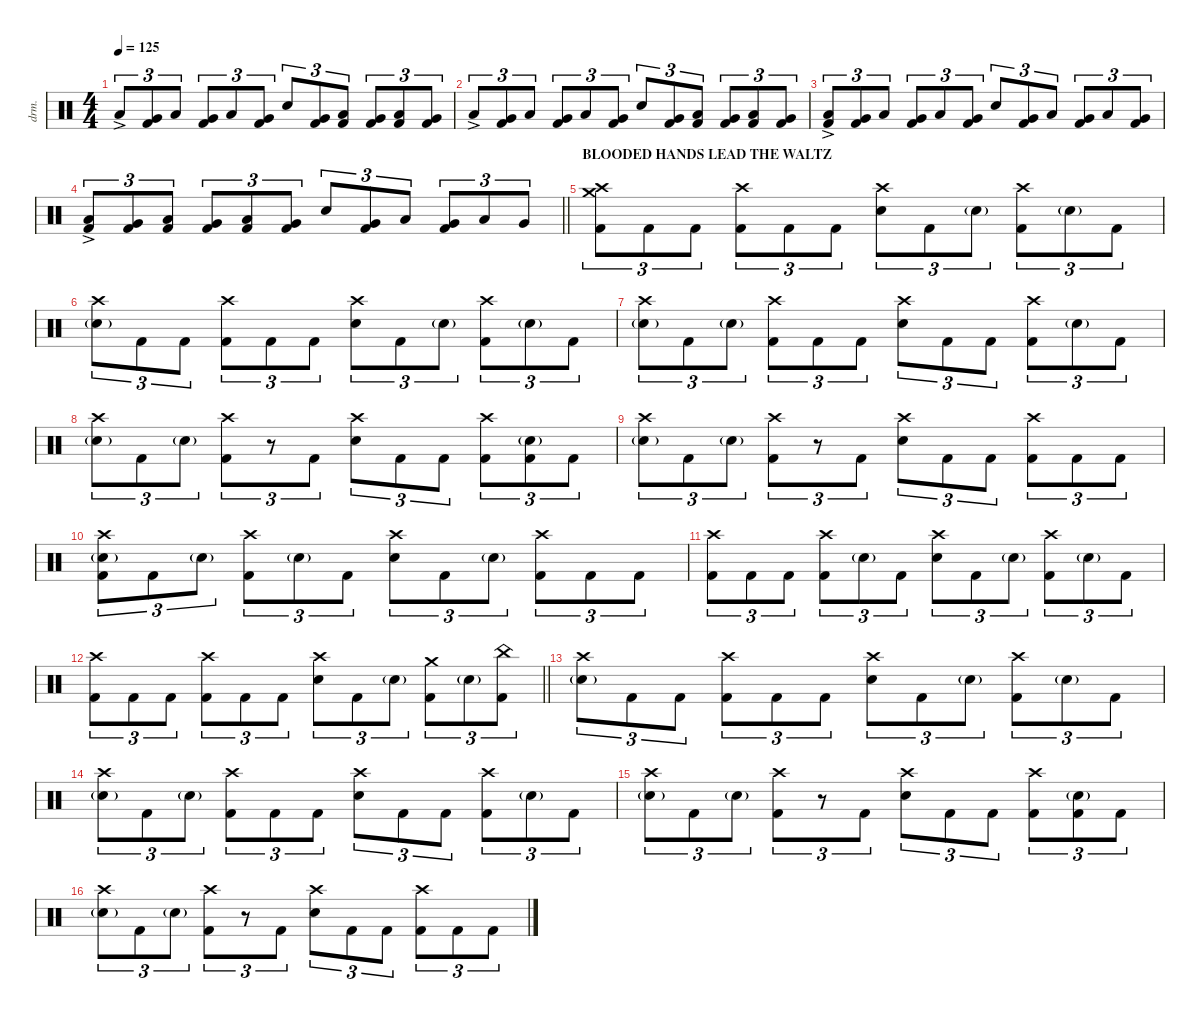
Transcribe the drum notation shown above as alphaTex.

\defaultSystemsLayout 4
\hideDynamics
\bracketExtendMode nobrackets
\track ("DRUMS (Thomas Haake)" "drm.") {instrument percussion}
\staff {score}
\articulation defaults
\ts (4 4)
\tempo 125
\clef neutral
\ks c "Low Floor Tom (hit)"{ac}.8{tu (3 2) dy mf}
("Very Low Tom (hit)" "Kick (hit) 2").8{tu (3 2)} "Low Floor Tom (hit)".8{tu (3 2) dy mp} ("Very Low Tom (hit)" "Kick (hit) 2").8{tu (3 2)} "Low Floor Tom (hit)".8{tu (3 2) dy mf} ("Very Low Tom (hit)" "Kick (hit) 2").8{tu (3 2)} "Snare (hit) 2".8{tu (3 2) dy f} ("Very Low Tom (hit)" "Kick (hit) 2").8{tu (3 2) dy mp} ("Low Floor Tom (hit)" "Kick (hit) 2").8{tu (3 2) dy mf} ("Very Low Tom (hit)" "Kick (hit) 2").8{tu (3 2)} ("Low Floor Tom (hit)" "Kick (hit) 2").8{tu (3 2) dy mp} ("Very Low Tom (hit)" "Kick (hit) 2").8{tu (3 2)} |
"Low Floor Tom (hit)"{ac}.8{tu (3 2) dy mf} ("Very Low Tom (hit)" "Kick (hit) 2").8{tu (3 2)} "Low Floor Tom (hit)".8{tu (3 2) dy mp} ("Very Low Tom (hit)" "Kick (hit) 2").8{tu (3 2)} "Low Floor Tom (hit)".8{tu (3 2) dy mf} ("Very Low Tom (hit)" "Kick (hit) 2").8{tu (3 2)} "Snare (hit) 2".8{tu (3 2) dy f} ("Very Low Tom (hit)" "Kick (hit) 2").8{tu (3 2) dy mp} ("Low Floor Tom (hit)" "Kick (hit) 2").8{tu (3 2) dy mf} ("Very Low Tom (hit)" "Kick (hit) 2").8{tu (3 2)} ("Low Floor Tom (hit)" "Kick (hit) 2").8{tu (3 2) dy mp} ("Very Low Tom (hit)" "Kick (hit) 2").8{tu (3 2)} |
("Low Floor Tom (hit)"{ac} "Kick (hit) 2").8{tu (3 2) dy f} ("Very Low Tom (hit)" "Kick (hit) 2").8{tu (3 2) dy mf} "Low Floor Tom (hit)".8{tu (3 2) dy mp} ("Very Low Tom (hit)" "Kick (hit) 2").8{tu (3 2)} "Low Floor Tom (hit)".8{tu (3 2) dy mf} ("Very Low Tom (hit)" "Kick (hit) 2").8{tu (3 2)} "Snare (hit) 2".8{tu (3 2) dy f} ("Very Low Tom (hit)" "Kick (hit) 2").8{tu (3 2) dy mp} "Low Floor Tom (hit)".8{tu (3 2) dy mf} ("Very Low Tom (hit)" "Kick (hit) 2").8{tu (3 2)} "Low Floor Tom (hit)".8{tu (3 2) dy mp} ("Very Low Tom (hit)" "Kick (hit) 2").8{tu (3 2)} |
\barLineRight lightlight
("Low Floor Tom (hit)"{ac} "Kick (hit) 2").8{tu (3 2) dy f} ("Very Low Tom (hit)" "Kick (hit) 2").8{tu (3 2) dy mf} ("Low Floor Tom (hit)" "Kick (hit) 2").8{tu (3 2) dy mp} ("Very Low Tom (hit)" "Kick (hit) 2").8{tu (3 2)} ("Low Floor Tom (hit)" "Kick (hit) 2").8{tu (3 2) dy mf} ("Very Low Tom (hit)" "Kick (hit) 2").8{tu (3 2)} "Snare (hit) 2".8{tu (3 2) dy f} ("Very Low Tom (hit)" "Kick (hit) 2").8{tu (3 2) dy mp} "Low Floor Tom (hit)".8{tu (3 2) dy mf} ("Very Low Tom (hit)" "Kick (hit) 2").8{tu (3 2)} "Low Floor Tom (hit)".8{tu (3 2) dy mp} "Very Low Tom (hit)".8{tu (3 2)} |
\section ("" "BLOODED HANDS LEAD THE WALTZ")
("Crash high (hit)" "Crash medium (hit)" "Kick (hit) 2").8{tu (3 2) dy f} "Kick (hit) 2".8{tu (3 2)} "Kick (hit) 2".8{tu (3 2)} ("Crash high (hit)" "Kick (hit) 2").8{tu (3 2)} "Kick (hit) 2".8{tu (3 2)} "Kick (hit) 2".8{tu (3 2)} ("Crash high (hit)" "Snare (hit) 2").8{tu (3 2)} "Kick (hit) 2".8{tu (3 2)} "Snare (hit) 2"{g}.8{tu (3 2) dy p} ("Crash high (hit)" "Kick (hit) 2").8{tu (3 2) dy f} "Snare (hit) 2"{g}.8{tu (3 2) dy p} "Kick (hit) 2".8{tu (3 2) dy f} |
("Crash high (hit)" "Snare (hit) 2"{g}).8{tu (3 2)} "Kick (hit) 2".8{tu (3 2)} "Kick (hit) 2".8{tu (3 2)} ("Crash high (hit)" "Kick (hit) 2").8{tu (3 2)} "Kick (hit) 2".8{tu (3 2)} "Kick (hit) 2".8{tu (3 2)} ("Crash high (hit)" "Snare (hit) 2").8{tu (3 2)} "Kick (hit) 2".8{tu (3 2)} "Snare (hit) 2"{g}.8{tu (3 2) dy p} ("Crash high (hit)" "Kick (hit) 2").8{tu (3 2) dy f} "Snare (hit) 2"{g}.8{tu (3 2) dy p} "Kick (hit) 2".8{tu (3 2) dy f} |
("Crash high (hit)" "Snare (hit) 2"{g}).8{tu (3 2)} "Kick (hit) 2".8{tu (3 2)} "Snare (hit) 2"{g}.8{tu (3 2) dy p} ("Crash high (hit)" "Kick (hit) 2").8{tu (3 2) dy f} "Kick (hit) 2".8{tu (3 2)} "Kick (hit) 2".8{tu (3 2)} ("Crash high (hit)" "Snare (hit) 2").8{tu (3 2)} "Kick (hit) 2".8{tu (3 2)} "Kick (hit) 2".8{tu (3 2)} ("Crash high (hit)" "Kick (hit) 2").8{tu (3 2)} "Snare (hit) 2"{g}.8{tu (3 2) dy p} "Kick (hit) 2".8{tu (3 2) dy f} |
("Crash high (hit)" "Snare (hit) 2"{g}).8{tu (3 2)} "Kick (hit) 2".8{tu (3 2)} "Snare (hit) 2"{g}.8{tu (3 2) dy p} ("Crash high (hit)" "Kick (hit) 2").8{tu (3 2) dy f} r.8{tu (3 2)} "Kick (hit) 2".8{tu (3 2)} ("Crash high (hit)" "Snare (hit) 2").8{tu (3 2)} "Kick (hit) 2".8{tu (3 2)} "Kick (hit) 2".8{tu (3 2)} ("Crash high (hit)" "Kick (hit) 2").8{tu (3 2)} ("Snare (hit) 2"{g} "Kick (hit) 2").8{tu (3 2)} "Kick (hit) 2".8{tu (3 2)} |
("Crash high (hit)" "Snare (hit) 2"{g}).8{tu (3 2)} "Kick (hit) 2".8{tu (3 2)} "Snare (hit) 2"{g}.8{tu (3 2) dy p} ("Crash high (hit)" "Kick (hit) 2").8{tu (3 2) dy f} r.8{tu (3 2)} "Kick (hit) 2".8{tu (3 2)} ("Crash high (hit)" "Snare (hit) 2").8{tu (3 2)} "Kick (hit) 2".8{tu (3 2)} "Kick (hit) 2".8{tu (3 2)} ("Crash high (hit)" "Kick (hit) 2").8{tu (3 2)} "Kick (hit) 2".8{tu (3 2)} "Kick (hit) 2".8{tu (3 2)} |
("Crash high (hit)" "Snare (hit) 2"{g} "Kick (hit) 2").8{tu (3 2)} "Kick (hit) 2".8{tu (3 2)} "Snare (hit) 2"{g}.8{tu (3 2) dy p} ("Crash high (hit)" "Kick (hit) 2").8{tu (3 2) dy f} "Snare (hit) 2"{g}.8{tu (3 2) dy p} "Kick (hit) 2".8{tu (3 2) dy f} ("Crash high (hit)" "Snare (hit) 2").8{tu (3 2)} "Kick (hit) 2".8{tu (3 2)} "Snare (hit) 2"{g}.8{tu (3 2) dy p} ("Crash high (hit)" "Kick (hit) 2").8{tu (3 2) dy f} "Kick (hit) 2".8{tu (3 2)} "Kick (hit) 2".8{tu (3 2)} |
("Crash high (hit)" "Kick (hit) 2").8{tu (3 2)} "Kick (hit) 2".8{tu (3 2)} "Kick (hit) 2".8{tu (3 2)} ("Crash high (hit)" "Kick (hit) 2").8{tu (3 2)} "Snare (hit) 2"{g}.8{tu (3 2) dy p} "Kick (hit) 2".8{tu (3 2) dy f} ("Crash high (hit)" "Snare (hit) 2").8{tu (3 2)} "Kick (hit) 2".8{tu (3 2)} "Snare (hit) 2"{g}.8{tu (3 2) dy p} ("Crash high (hit)" "Kick (hit) 2").8{tu (3 2) dy f} "Snare (hit) 2"{g}.8{tu (3 2) dy p} "Kick (hit) 2".8{tu (3 2) dy f} |
\barLineRight lightlight
("Crash high (hit)" "Kick (hit) 2").8{tu (3 2)} "Kick (hit) 2".8{tu (3 2)} "Kick (hit) 2".8{tu (3 2)} ("Crash high (hit)" "Kick (hit) 2").8{tu (3 2)} "Kick (hit) 2".8{tu (3 2)} "Kick (hit) 2".8{tu (3 2)} ("Crash high (hit)" "Snare (hit) 2").8{tu (3 2)} "Kick (hit) 2".8{tu (3 2)} "Snare (hit) 2"{g}.8{tu (3 2) dy p} ("Crash medium (hit)" "Kick (hit) 2").8{tu (3 2) dy f} "Snare (hit) 2"{g}.8{tu (3 2) dy p} ("China (hit)" "Kick (hit) 2").8{tu (3 2) dy mf} |
("Crash high (hit)" "Snare (hit) 2"{g}).8{tu (3 2) dy f} "Kick (hit) 2".8{tu (3 2)} "Kick (hit) 2".8{tu (3 2)} ("Crash high (hit)" "Kick (hit) 2").8{tu (3 2)} "Kick (hit) 2".8{tu (3 2)} "Kick (hit) 2".8{tu (3 2)} ("Crash high (hit)" "Snare (hit) 2").8{tu (3 2)} "Kick (hit) 2".8{tu (3 2)} "Snare (hit) 2"{g}.8{tu (3 2) dy p} ("Crash high (hit)" "Kick (hit) 2").8{tu (3 2) dy f} "Snare (hit) 2"{g}.8{tu (3 2) dy p} "Kick (hit) 2".8{tu (3 2) dy f} |
("Crash high (hit)" "Snare (hit) 2"{g}).8{tu (3 2)} "Kick (hit) 2".8{tu (3 2)} "Snare (hit) 2"{g}.8{tu (3 2) dy p} ("Crash high (hit)" "Kick (hit) 2").8{tu (3 2) dy f} "Kick (hit) 2".8{tu (3 2)} "Kick (hit) 2".8{tu (3 2)} ("Crash high (hit)" "Snare (hit) 2").8{tu (3 2)} "Kick (hit) 2".8{tu (3 2)} "Kick (hit) 2".8{tu (3 2)} ("Crash high (hit)" "Kick (hit) 2").8{tu (3 2)} "Snare (hit) 2"{g}.8{tu (3 2) dy p} "Kick (hit) 2".8{tu (3 2) dy f} |
("Crash high (hit)" "Snare (hit) 2"{g}).8{tu (3 2)} "Kick (hit) 2".8{tu (3 2)} "Snare (hit) 2"{g}.8{tu (3 2) dy p} ("Crash high (hit)" "Kick (hit) 2").8{tu (3 2) dy f} r.8{tu (3 2)} "Kick (hit) 2".8{tu (3 2)} ("Crash high (hit)" "Snare (hit) 2").8{tu (3 2)} "Kick (hit) 2".8{tu (3 2)} "Kick (hit) 2".8{tu (3 2)} ("Crash high (hit)" "Kick (hit) 2").8{tu (3 2)} ("Snare (hit) 2"{g} "Kick (hit) 2").8{tu (3 2)} "Kick (hit) 2".8{tu (3 2)} |
("Crash high (hit)" "Snare (hit) 2"{g}).8{tu (3 2)} "Kick (hit) 2".8{tu (3 2)} "Snare (hit) 2"{g}.8{tu (3 2) dy p} ("Crash high (hit)" "Kick (hit) 2").8{tu (3 2) dy f} r.8{tu (3 2)} "Kick (hit) 2".8{tu (3 2)} ("Crash high (hit)" "Snare (hit) 2").8{tu (3 2)} "Kick (hit) 2".8{tu (3 2)} "Kick (hit) 2".8{tu (3 2)} ("Crash high (hit)" "Kick (hit) 2").8{tu (3 2)} "Kick (hit) 2".8{tu (3 2)} "Kick (hit) 2".8{tu (3 2)}
